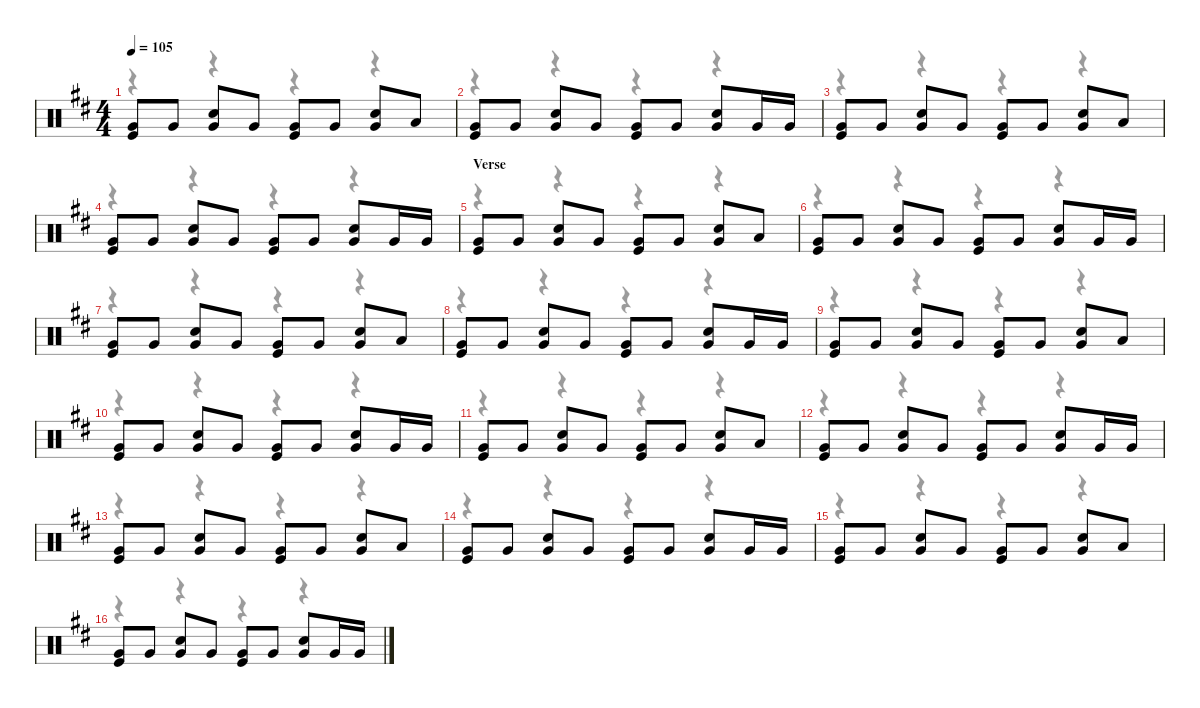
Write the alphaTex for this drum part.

\defaultSystemsLayout 4
\hideDynamics
\bracketExtendMode nobrackets
\singleTrackTrackNamePolicy hidden
\multiTrackTrackNamePolicy hidden
\firstSystemTrackNameMode fullname
\firstSystemTrackNameOrientation horizontal
\otherSystemsTrackNameOrientation horizontal
\track ("Drums" "drm.") {instrument percussion}
\staff {score}
\articulation defaults
\voice
\ts (4 4)
\tempo 105
\clef neutral
\ks bminor
("Very Low Tom (hit)"{acc forcenatural} "Kick (hit)"{acc forcenatural}).8{dy mp beam Up} "Very Low Tom (hit)"{acc forcenatural}.8{beam Up} ("Very Low Tom (hit)"{acc forcenatural} "Snare (hit) 2"{acc forcenatural}).8{beam Up} "Very Low Tom (hit)"{acc forcenatural}.8{beam Up} ("Very Low Tom (hit)"{acc forcenatural} "Kick (hit)"{acc forcenatural}).8{beam Up} "Very Low Tom (hit)"{acc forcenatural}.8{beam Up} ("Very Low Tom (hit)"{acc forcenatural} "Snare (hit) 2"{acc forcenatural}).8{beam Up} "Low Tom (hit)"{acc forcenatural}.8{beam Up} |
("Very Low Tom (hit)"{acc forcenatural} "Kick (hit)"{acc forcenatural}).8{beam Up} "Very Low Tom (hit)"{acc forcenatural}.8{beam Up} ("Very Low Tom (hit)"{acc forcenatural} "Snare (hit) 2"{acc forcenatural}).8{beam Up} "Very Low Tom (hit)"{acc forcenatural}.8{beam Up} ("Very Low Tom (hit)"{acc forcenatural} "Kick (hit)"{acc forcenatural}).8{beam Up} "Very Low Tom (hit)"{acc forcenatural}.8{beam Up} ("Very Low Tom (hit)"{acc forcenatural} "Snare (hit) 2"{acc forcenatural}).8{beam Up} "Very Low Tom (hit)"{acc forcenatural}.16{beam Up} "Very Low Tom (hit)"{acc forcenatural}.16{beam Up} |
("Very Low Tom (hit)"{acc forcenatural} "Kick (hit)"{acc forcenatural}).8{beam Up} "Very Low Tom (hit)"{acc forcenatural}.8{beam Up} ("Very Low Tom (hit)"{acc forcenatural} "Snare (hit) 2"{acc forcenatural}).8{beam Up} "Very Low Tom (hit)"{acc forcenatural}.8{beam Up} ("Very Low Tom (hit)"{acc forcenatural} "Kick (hit)"{acc forcenatural}).8{beam Up} "Very Low Tom (hit)"{acc forcenatural}.8{beam Up} ("Very Low Tom (hit)"{acc forcenatural} "Snare (hit) 2"{acc forcenatural}).8{beam Up} "Low Tom (hit)"{acc forcenatural}.8{beam Up} |
("Very Low Tom (hit)"{acc forcenatural} "Kick (hit)"{acc forcenatural}).8{beam Up} "Very Low Tom (hit)"{acc forcenatural}.8{beam Up} ("Very Low Tom (hit)"{acc forcenatural} "Snare (hit) 2"{acc forcenatural}).8{beam Up} "Very Low Tom (hit)"{acc forcenatural}.8{beam Up} ("Very Low Tom (hit)"{acc forcenatural} "Kick (hit)"{acc forcenatural}).8{beam Up} "Very Low Tom (hit)"{acc forcenatural}.8{beam Up} ("Very Low Tom (hit)"{acc forcenatural} "Snare (hit) 2"{acc forcenatural}).8{beam Up} "Very Low Tom (hit)"{acc forcenatural}.16{beam Up} "Very Low Tom (hit)"{acc forcenatural}.16{beam Up} |
\section ("" "Verse")
("Very Low Tom (hit)"{acc forcenatural} "Kick (hit)"{acc forcenatural}).8{beam Up} "Very Low Tom (hit)"{acc forcenatural}.8{beam Up} ("Very Low Tom (hit)"{acc forcenatural} "Snare (hit) 2"{acc forcenatural}).8{beam Up} "Very Low Tom (hit)"{acc forcenatural}.8{beam Up} ("Very Low Tom (hit)"{acc forcenatural} "Kick (hit)"{acc forcenatural}).8{beam Up} "Very Low Tom (hit)"{acc forcenatural}.8{beam Up} ("Very Low Tom (hit)"{acc forcenatural} "Snare (hit) 2"{acc forcenatural}).8{beam Up} "Low Tom (hit)"{acc forcenatural}.8{beam Up} |
("Very Low Tom (hit)"{acc forcenatural} "Kick (hit)"{acc forcenatural}).8{beam Up} "Very Low Tom (hit)"{acc forcenatural}.8{beam Up} ("Very Low Tom (hit)"{acc forcenatural} "Snare (hit) 2"{acc forcenatural}).8{beam Up} "Very Low Tom (hit)"{acc forcenatural}.8{beam Up} ("Very Low Tom (hit)"{acc forcenatural} "Kick (hit)"{acc forcenatural}).8{beam Up} "Very Low Tom (hit)"{acc forcenatural}.8{beam Up} ("Very Low Tom (hit)"{acc forcenatural} "Snare (hit) 2"{acc forcenatural}).8{beam Up} "Very Low Tom (hit)"{acc forcenatural}.16{beam Up} "Very Low Tom (hit)"{acc forcenatural}.16{beam Up} |
("Very Low Tom (hit)"{acc forcenatural} "Kick (hit)"{acc forcenatural}).8{beam Up} "Very Low Tom (hit)"{acc forcenatural}.8{beam Up} ("Very Low Tom (hit)"{acc forcenatural} "Snare (hit) 2"{acc forcenatural}).8{beam Up} "Very Low Tom (hit)"{acc forcenatural}.8{beam Up} ("Very Low Tom (hit)"{acc forcenatural} "Kick (hit)"{acc forcenatural}).8{beam Up} "Very Low Tom (hit)"{acc forcenatural}.8{beam Up} ("Very Low Tom (hit)"{acc forcenatural} "Snare (hit) 2"{acc forcenatural}).8{beam Up} "Low Tom (hit)"{acc forcenatural}.8{beam Up} |
("Very Low Tom (hit)"{acc forcenatural} "Kick (hit)"{acc forcenatural}).8{beam Up} "Very Low Tom (hit)"{acc forcenatural}.8{beam Up} ("Very Low Tom (hit)"{acc forcenatural} "Snare (hit) 2"{acc forcenatural}).8{beam Up} "Very Low Tom (hit)"{acc forcenatural}.8{beam Up} ("Very Low Tom (hit)"{acc forcenatural} "Kick (hit)"{acc forcenatural}).8{beam Up} "Very Low Tom (hit)"{acc forcenatural}.8{beam Up} ("Very Low Tom (hit)"{acc forcenatural} "Snare (hit) 2"{acc forcenatural}).8{beam Up} "Very Low Tom (hit)"{acc forcenatural}.16{beam Up} "Very Low Tom (hit)"{acc forcenatural}.16{beam Up} |
("Very Low Tom (hit)"{acc forcenatural} "Kick (hit)"{acc forcenatural}).8{beam Up} "Very Low Tom (hit)"{acc forcenatural}.8{beam Up} ("Very Low Tom (hit)"{acc forcenatural} "Snare (hit) 2"{acc forcenatural}).8{beam Up} "Very Low Tom (hit)"{acc forcenatural}.8{beam Up} ("Very Low Tom (hit)"{acc forcenatural} "Kick (hit)"{acc forcenatural}).8{beam Up} "Very Low Tom (hit)"{acc forcenatural}.8{beam Up} ("Very Low Tom (hit)"{acc forcenatural} "Snare (hit) 2"{acc forcenatural}).8{beam Up} "Low Tom (hit)"{acc forcenatural}.8{beam Up} |
("Very Low Tom (hit)"{acc forcenatural} "Kick (hit)"{acc forcenatural}).8{beam Up} "Very Low Tom (hit)"{acc forcenatural}.8{beam Up} ("Very Low Tom (hit)"{acc forcenatural} "Snare (hit) 2"{acc forcenatural}).8{beam Up} "Very Low Tom (hit)"{acc forcenatural}.8{beam Up} ("Very Low Tom (hit)"{acc forcenatural} "Kick (hit)"{acc forcenatural}).8{beam Up} "Very Low Tom (hit)"{acc forcenatural}.8{beam Up} ("Very Low Tom (hit)"{acc forcenatural} "Snare (hit) 2"{acc forcenatural}).8{beam Up} "Very Low Tom (hit)"{acc forcenatural}.16{beam Up} "Very Low Tom (hit)"{acc forcenatural}.16{beam Up} |
("Very Low Tom (hit)"{acc forcenatural} "Kick (hit)"{acc forcenatural}).8{beam Up} "Very Low Tom (hit)"{acc forcenatural}.8{beam Up} ("Very Low Tom (hit)"{acc forcenatural} "Snare (hit) 2"{acc forcenatural}).8{beam Up} "Very Low Tom (hit)"{acc forcenatural}.8{beam Up} ("Very Low Tom (hit)"{acc forcenatural} "Kick (hit)"{acc forcenatural}).8{beam Up} "Very Low Tom (hit)"{acc forcenatural}.8{beam Up} ("Very Low Tom (hit)"{acc forcenatural} "Snare (hit) 2"{acc forcenatural}).8{beam Up} "Low Tom (hit)"{acc forcenatural}.8{beam Up} |
("Very Low Tom (hit)"{acc forcenatural} "Kick (hit)"{acc forcenatural}).8{beam Up} "Very Low Tom (hit)"{acc forcenatural}.8{beam Up} ("Very Low Tom (hit)"{acc forcenatural} "Snare (hit) 2"{acc forcenatural}).8{beam Up} "Very Low Tom (hit)"{acc forcenatural}.8{beam Up} ("Very Low Tom (hit)"{acc forcenatural} "Kick (hit)"{acc forcenatural}).8{beam Up} "Very Low Tom (hit)"{acc forcenatural}.8{beam Up} ("Very Low Tom (hit)"{acc forcenatural} "Snare (hit) 2"{acc forcenatural}).8{beam Up} "Very Low Tom (hit)"{acc forcenatural}.16{beam Up} "Very Low Tom (hit)"{acc forcenatural}.16{beam Up} |
("Very Low Tom (hit)"{acc forcenatural} "Kick (hit)"{acc forcenatural}).8{beam Up} "Very Low Tom (hit)"{acc forcenatural}.8{beam Up} ("Very Low Tom (hit)"{acc forcenatural} "Snare (hit) 2"{acc forcenatural}).8{beam Up} "Very Low Tom (hit)"{acc forcenatural}.8{beam Up} ("Very Low Tom (hit)"{acc forcenatural} "Kick (hit)"{acc forcenatural}).8{beam Up} "Very Low Tom (hit)"{acc forcenatural}.8{beam Up} ("Very Low Tom (hit)"{acc forcenatural} "Snare (hit) 2"{acc forcenatural}).8{beam Up} "Low Tom (hit)"{acc forcenatural}.8{beam Up} |
("Very Low Tom (hit)"{acc forcenatural} "Kick (hit)"{acc forcenatural}).8{beam Up} "Very Low Tom (hit)"{acc forcenatural}.8{beam Up} ("Very Low Tom (hit)"{acc forcenatural} "Snare (hit) 2"{acc forcenatural}).8{beam Up} "Very Low Tom (hit)"{acc forcenatural}.8{beam Up} ("Very Low Tom (hit)"{acc forcenatural} "Kick (hit)"{acc forcenatural}).8{beam Up} "Very Low Tom (hit)"{acc forcenatural}.8{beam Up} ("Very Low Tom (hit)"{acc forcenatural} "Snare (hit) 2"{acc forcenatural}).8{beam Up} "Very Low Tom (hit)"{acc forcenatural}.16{beam Up} "Very Low Tom (hit)"{acc forcenatural}.16{beam Up} |
("Very Low Tom (hit)"{acc forcenatural} "Kick (hit)"{acc forcenatural}).8{beam Up} "Very Low Tom (hit)"{acc forcenatural}.8{beam Up} ("Very Low Tom (hit)"{acc forcenatural} "Snare (hit) 2"{acc forcenatural}).8{beam Up} "Very Low Tom (hit)"{acc forcenatural}.8{beam Up} ("Very Low Tom (hit)"{acc forcenatural} "Kick (hit)"{acc forcenatural}).8{beam Up} "Very Low Tom (hit)"{acc forcenatural}.8{beam Up} ("Very Low Tom (hit)"{acc forcenatural} "Snare (hit) 2"{acc forcenatural}).8{beam Up} "Low Tom (hit)"{acc forcenatural}.8{beam Up} |
("Very Low Tom (hit)"{acc forcenatural} "Kick (hit)"{acc forcenatural}).8{beam Up} "Very Low Tom (hit)"{acc forcenatural}.8{beam Up} ("Very Low Tom (hit)"{acc forcenatural} "Snare (hit) 2"{acc forcenatural}).8{beam Up} "Very Low Tom (hit)"{acc forcenatural}.8{beam Up} ("Very Low Tom (hit)"{acc forcenatural} "Kick (hit)"{acc forcenatural}).8{beam Up} "Very Low Tom (hit)"{acc forcenatural}.8{beam Up} ("Very Low Tom (hit)"{acc forcenatural} "Snare (hit) 2"{acc forcenatural}).8{beam Up} "Very Low Tom (hit)"{acc forcenatural}.16{beam Up} "Very Low Tom (hit)"{acc forcenatural}.16{beam Up}
\voice
\clef neutral
\ottava regular
\simile none
\ks bminor
r.4{dy mf beam Down} r.4{beam Down} r.4{beam Down} r.4{beam Down} |
r.4{beam Down} r.4{beam Down} r.4{beam Down} r.4{beam Down} |
r.4{beam Down} r.4{beam Down} r.4{beam Down} r.4{beam Down} |
r.4{beam Down} r.4{beam Down} r.4{beam Down} r.4{beam Down} |
r.4{beam Down} r.4{beam Down} r.4{beam Down} r.4{beam Down} |
r.4{beam Down} r.4{beam Down} r.4{beam Down} r.4{beam Down} |
r.4{beam Down} r.4{beam Down} r.4{beam Down} r.4{beam Down} |
r.4{beam Down} r.4{beam Down} r.4{beam Down} r.4{beam Down} |
r.4{beam Down} r.4{beam Down} r.4{beam Down} r.4{beam Down} |
r.4{beam Down} r.4{beam Down} r.4{beam Down} r.4{beam Down} |
r.4{beam Down} r.4{beam Down} r.4{beam Down} r.4{beam Down} |
r.4{beam Down} r.4{beam Down} r.4{beam Down} r.4{beam Down} |
r.4{beam Down} r.4{beam Down} r.4{beam Down} r.4{beam Down} |
r.4{beam Down} r.4{beam Down} r.4{beam Down} r.4{beam Down} |
r.4{beam Down} r.4{beam Down} r.4{beam Down} r.4{beam Down} |
r.4{beam Down} r.4{beam Down} r.4{beam Down} r.4{beam Down}
